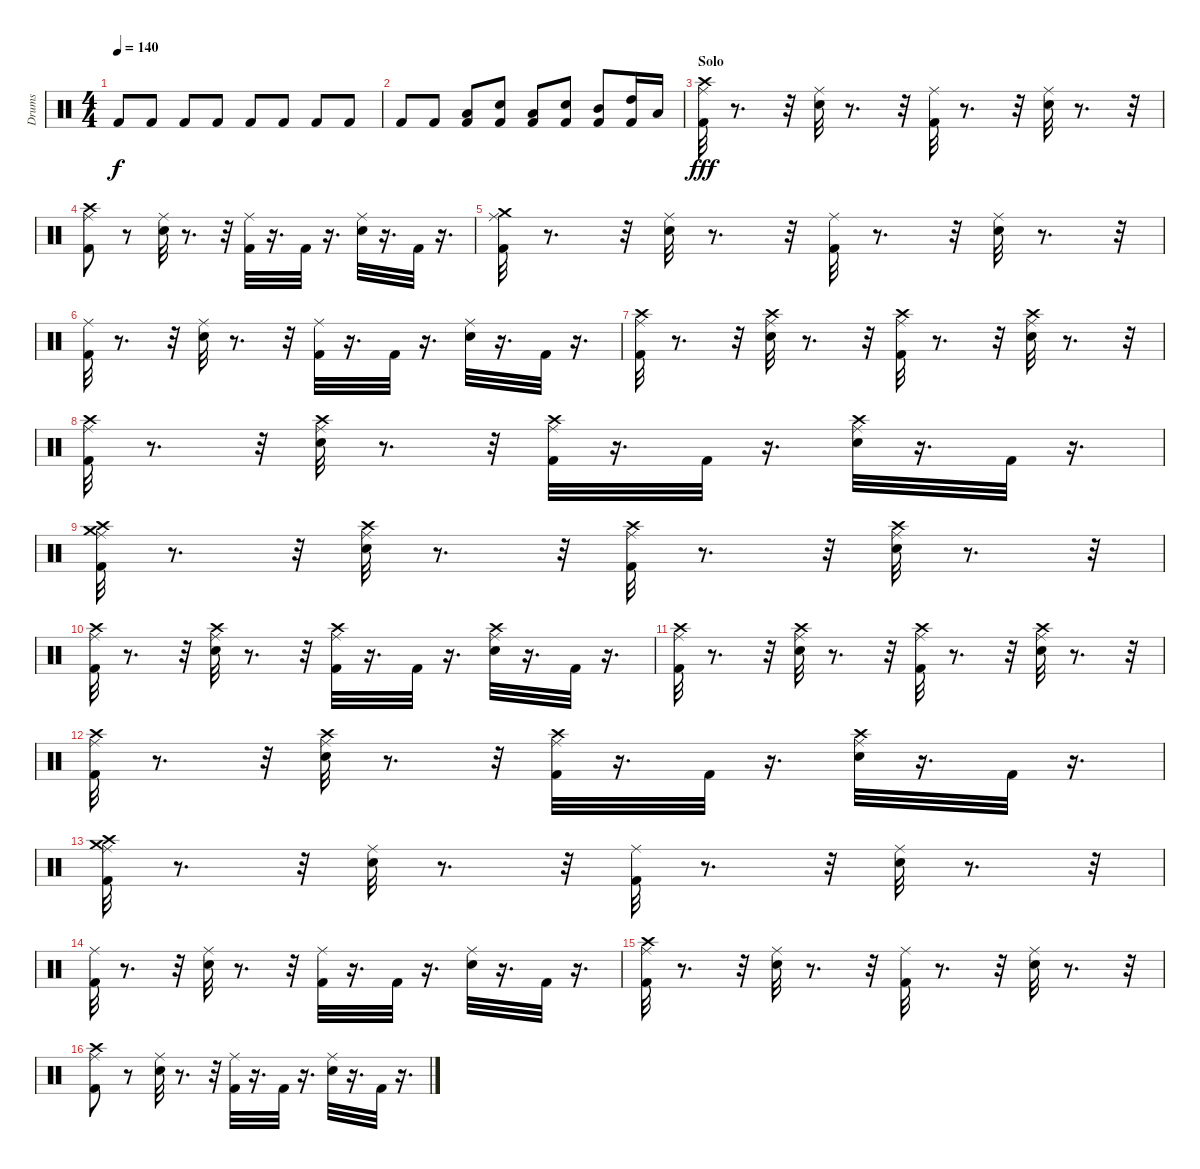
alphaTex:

\track ("Drums" "Drums") {instrument percussion}
\staff {score}
\articulation defaults
\ts (4 4)
\tempo 140
\clef neutral
\ks c "Kick (hit) 2".8{dy f volume 8} "Kick (hit) 2".8{volume 9} "Kick (hit) 2".8{volume 10} "Kick (hit) 2".8{volume 11} "Kick (hit) 2".8{volume 12} "Kick (hit) 2".8{volume 13} "Kick (hit) 2".8{volume 14} "Kick (hit) 2".8{volume 14}
|
"Kick (hit) 2".8{volume 16} "Kick (hit) 2".8{volume 14} ("Low Tom (hit)" "Kick (hit) 2").8{volume 14} ("Snare (hit) 2" "Kick (hit) 2").8{volume 14} ("Low Tom (hit)" "Kick (hit) 2").8{volume 15} ("Electric Snare (hit)" "Kick (hit) 2").8{volume 15} ("Mid Tom (hit)" "Kick (hit) 2").8{volume 15} ("High Tom (hit)" "Kick (hit) 2").16{volume 16} "Low Tom (hit)".16{volume 16} |
\section ("" "Solo")
("Crash high (hit)" "Kick (hit) 2" "Ride (middle)").32{dy fff} r.8{d} r.32 ("Ride (middle)" "Snare (hit) 2").32 r.8{d} r.32 ("Kick (hit) 2" "Ride (middle)").32 r.8{d} r.32 ("Ride (middle)" "Snare (hit) 2").32 r.8{d} r.32 |
("Crash high (hit)" "Kick (hit) 2" "Ride (middle)").8 r.8 ("Ride (middle)" "Snare (hit) 2").32 r.8{d} r.32 ("Kick (hit) 2" "Ride (middle)").32 r.16{d} "Kick (hit) 2".32 r.16{d} ("Ride (middle)" "Snare (hit) 2").32 r.16{d} "Kick (hit) 2".32 r.16{d} |
("Crash medium (hit)" "Kick (hit) 2" "Ride (middle)").32 r.8{d} r.32 ("Ride (middle)" "Snare (hit) 2").32 r.8{d} r.32 ("Kick (hit) 2" "Ride (middle)").32 r.8{d} r.32 ("Ride (middle)" "Snare (hit) 2").32 r.8{d} r.32 |
("Kick (hit) 2" "Ride (middle)").32 r.8{d} r.32 ("Ride (middle)" "Snare (hit) 2").32 r.8{d} r.32 ("Kick (hit) 2" "Ride (middle)").32 r.16{d} "Kick (hit) 2".32 r.16{d} ("Ride (middle)" "Snare (hit) 2").32 r.16{d} "Kick (hit) 2".32 r.16{d} |
("Kick (hit) 2" "Ride (middle)" "Crash high (hit)").32 r.8{d} r.32 ("Ride (middle)" "Snare (hit) 2" "Crash high (hit)").32 r.8{d} r.32 ("Kick (hit) 2" "Ride (middle)" "Crash high (hit)").32 r.8{d} r.32 ("Ride (middle)" "Snare (hit) 2" "Crash high (hit)").32 r.8{d} r.32 |
("Kick (hit) 2" "Ride (middle)" "Crash high (hit)").32 r.8{d} r.32 ("Ride (middle)" "Snare (hit) 2" "Crash high (hit)").32 r.8{d} r.32 ("Kick (hit) 2" "Ride (middle)" "Crash high (hit)").32 r.16{d} "Kick (hit) 2".32 r.16{d} ("Ride (middle)" "Snare (hit) 2" "Crash high (hit)").32 r.16{d} "Kick (hit) 2".32 r.16{d} |
("Crash medium (hit)" "Kick (hit) 2" "Ride (middle)" "Crash high (hit)").32 r.8{d} r.32 ("Ride (middle)" "Snare (hit) 2" "Crash high (hit)").32 r.8{d} r.32 ("Kick (hit) 2" "Ride (middle)" "Crash high (hit)").32 r.8{d} r.32 ("Ride (middle)" "Snare (hit) 2" "Crash high (hit)").32 r.8{d} r.32 |
("Kick (hit) 2" "Ride (middle)" "Crash high (hit)").32 r.8{d} r.32 ("Ride (middle)" "Snare (hit) 2" "Crash high (hit)").32 r.8{d} r.32 ("Kick (hit) 2" "Ride (middle)" "Crash high (hit)").32 r.16{d} "Kick (hit) 2".32 r.16{d} ("Ride (middle)" "Snare (hit) 2" "Crash high (hit)").32 r.16{d} "Kick (hit) 2".32 r.16{d} |
("Kick (hit) 2" "Ride (middle)" "Crash high (hit)").32 r.8{d} r.32 ("Ride (middle)" "Snare (hit) 2" "Crash high (hit)").32 r.8{d} r.32 ("Kick (hit) 2" "Ride (middle)" "Crash high (hit)").32 r.8{d} r.32 ("Ride (middle)" "Snare (hit) 2" "Crash high (hit)").32 r.8{d} r.32 |
("Kick (hit) 2" "Ride (middle)" "Crash high (hit)").32 r.8{d} r.32 ("Ride (middle)" "Snare (hit) 2" "Crash high (hit)").32 r.8{d} r.32 ("Kick (hit) 2" "Ride (middle)" "Crash high (hit)").32 r.16{d} "Kick (hit) 2".32 r.16{d} ("Ride (middle)" "Snare (hit) 2" "Crash high (hit)").32 r.16{d} "Kick (hit) 2".32 r.16{d} |
("Crash medium (hit)" "Kick (hit) 2" "Ride (middle)" "Crash high (hit)").32 r.8{d} r.32 ("Ride (middle)" "Snare (hit) 2").32 r.8{d} r.32 ("Kick (hit) 2" "Ride (middle)").32 r.8{d} r.32 ("Ride (middle)" "Snare (hit) 2").32 r.8{d} r.32 |
("Kick (hit) 2" "Ride (middle)").32 r.8{d} r.32 ("Ride (middle)" "Snare (hit) 2").32 r.8{d} r.32 ("Kick (hit) 2" "Ride (middle)").32 r.16{d} "Kick (hit) 2".32 r.16{d} ("Ride (middle)" "Snare (hit) 2").32 r.16{d} "Kick (hit) 2".32 r.16{d} |
("Crash high (hit)" "Kick (hit) 2" "Ride (middle)").32 r.8{d} r.32 ("Ride (middle)" "Snare (hit) 2").32 r.8{d} r.32 ("Kick (hit) 2" "Ride (middle)").32 r.8{d} r.32 ("Ride (middle)" "Snare (hit) 2").32 r.8{d} r.32 |
("Crash high (hit)" "Kick (hit) 2" "Ride (middle)").8 r.8 ("Ride (middle)" "Snare (hit) 2").32 r.8{d} r.32 ("Kick (hit) 2" "Ride (middle)").32 r.16{d} "Kick (hit) 2".32 r.16{d} ("Ride (middle)" "Snare (hit) 2").32 r.16{d} "Kick (hit) 2".32 r.16{d}
